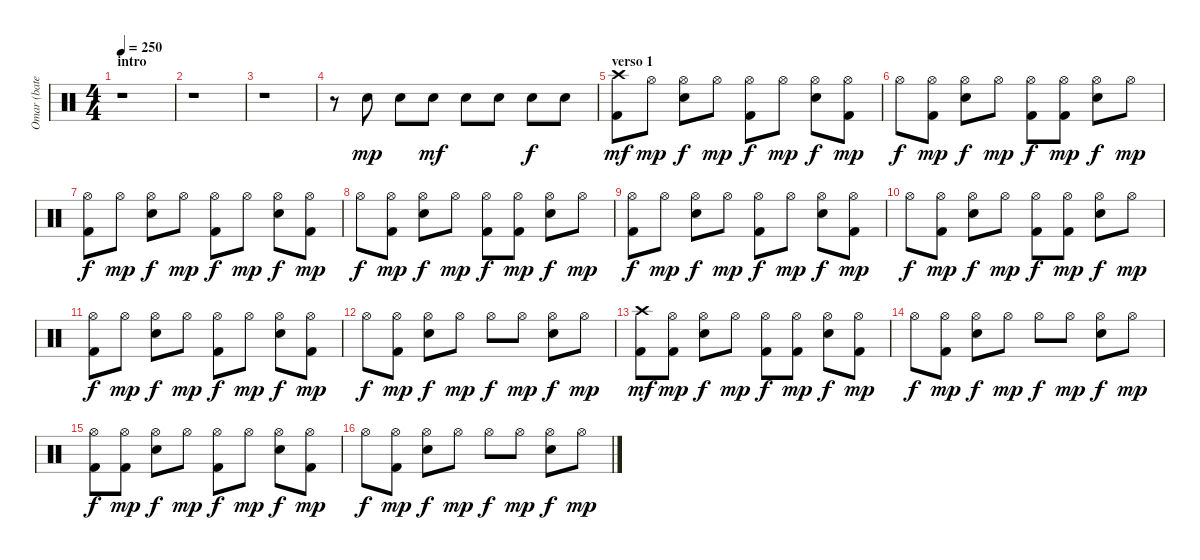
\track ("Omar (batería)" "Omar (bate") {instrument percussion}
\staff {score}
\articulation defaults
\ts (4 4)
\section ("" "intro")
\tempo 250
\clef neutral
\ks c
r.1{dy mp} |
r.1 |
r.1 |
r.8 "Snare (hit) 2".8 "Snare (hit) 2".8 "Snare (hit) 2".8{dy mf} "Snare (hit) 2".8 "Snare (hit) 2".8 "Snare (hit) 2".8{dy f} "Snare (hit) 2".8 |
\section ("" "verso 1")
("Crash high (hit)" "Kick (hit) 2").8{dy mf} "Hi-Hat (open)".8{dy mp} ("Hi-Hat (open)" "Snare (hit) 2").8{dy f} "Hi-Hat (open)".8{dy mp} ("Hi-Hat (open)" "Kick (hit) 2").8{dy f} "Hi-Hat (open)".8{dy mp} ("Hi-Hat (open)" "Snare (hit) 2").8{dy f} ("Hi-Hat (open)" "Kick (hit) 2").8{dy mp} |
"Hi-Hat (open)".8{dy f} ("Hi-Hat (open)" "Kick (hit) 2").8{dy mp} ("Hi-Hat (open)" "Snare (hit) 2").8{dy f} "Hi-Hat (open)".8{dy mp} ("Hi-Hat (open)" "Kick (hit) 2").8{dy f} ("Hi-Hat (open)" "Kick (hit) 2").8{dy mp} ("Hi-Hat (open)" "Snare (hit) 2").8{dy f} "Hi-Hat (open)".8{dy mp} |
("Hi-Hat (open)" "Kick (hit) 2").8{dy f} "Hi-Hat (open)".8{dy mp} ("Hi-Hat (open)" "Snare (hit) 2").8{dy f} "Hi-Hat (open)".8{dy mp} ("Hi-Hat (open)" "Kick (hit) 2").8{dy f} "Hi-Hat (open)".8{dy mp} ("Hi-Hat (open)" "Snare (hit) 2").8{dy f} ("Hi-Hat (open)" "Kick (hit) 2").8{dy mp} |
"Hi-Hat (open)".8{dy f} ("Hi-Hat (open)" "Kick (hit) 2").8{dy mp} ("Hi-Hat (open)" "Snare (hit) 2").8{dy f} "Hi-Hat (open)".8{dy mp} ("Hi-Hat (open)" "Kick (hit) 2").8{dy f} ("Hi-Hat (open)" "Kick (hit) 2").8{dy mp} ("Hi-Hat (open)" "Snare (hit) 2").8{dy f} "Hi-Hat (open)".8{dy mp} |
("Hi-Hat (open)" "Kick (hit) 2").8{dy f} "Hi-Hat (open)".8{dy mp} ("Hi-Hat (open)" "Snare (hit) 2").8{dy f} "Hi-Hat (open)".8{dy mp} ("Hi-Hat (open)" "Kick (hit) 2").8{dy f} "Hi-Hat (open)".8{dy mp} ("Hi-Hat (open)" "Snare (hit) 2").8{dy f} ("Hi-Hat (open)" "Kick (hit) 2").8{dy mp} |
"Hi-Hat (open)".8{dy f} ("Hi-Hat (open)" "Kick (hit) 2").8{dy mp} ("Hi-Hat (open)" "Snare (hit) 2").8{dy f} "Hi-Hat (open)".8{dy mp} ("Hi-Hat (open)" "Kick (hit) 2").8{dy f} ("Hi-Hat (open)" "Kick (hit) 2").8{dy mp} ("Hi-Hat (open)" "Snare (hit) 2").8{dy f} "Hi-Hat (open)".8{dy mp} |
("Hi-Hat (open)" "Kick (hit) 2").8{dy f} "Hi-Hat (open)".8{dy mp} ("Hi-Hat (open)" "Snare (hit) 2").8{dy f} "Hi-Hat (open)".8{dy mp} ("Hi-Hat (open)" "Kick (hit) 2").8{dy f} "Hi-Hat (open)".8{dy mp} ("Hi-Hat (open)" "Snare (hit) 2").8{dy f} ("Hi-Hat (open)" "Kick (hit) 2").8{dy mp} |
"Hi-Hat (open)".8{dy f} ("Hi-Hat (open)" "Kick (hit) 2").8{dy mp} ("Hi-Hat (open)" "Snare (hit) 2").8{dy f} "Hi-Hat (open)".8{dy mp} "Hi-Hat (open)".8{dy f} "Hi-Hat (open)".8{dy mp} ("Hi-Hat (open)" "Snare (hit) 2").8{dy f} "Hi-Hat (open)".8{dy mp} |
\section ("" "")
("Crash high (hit)" "Kick (hit) 2").8{dy mf} ("Hi-Hat (open)" "Kick (hit) 2").8{dy mp} ("Hi-Hat (open)" "Snare (hit) 2").8{dy f} "Hi-Hat (open)".8{dy mp} ("Hi-Hat (open)" "Kick (hit) 2").8{dy f} ("Hi-Hat (open)" "Kick (hit) 2").8{dy mp} ("Hi-Hat (open)" "Snare (hit) 2").8{dy f} ("Hi-Hat (open)" "Kick (hit) 2").8{dy mp} |
"Hi-Hat (open)".8{dy f} ("Hi-Hat (open)" "Kick (hit) 2").8{dy mp} ("Hi-Hat (open)" "Snare (hit) 2").8{dy f} "Hi-Hat (open)".8{dy mp} "Hi-Hat (open)".8{dy f} "Hi-Hat (open)".8{dy mp} ("Hi-Hat (open)" "Snare (hit) 2").8{dy f} "Hi-Hat (open)".8{dy mp} |
("Hi-Hat (open)" "Kick (hit) 2").8{dy f} ("Hi-Hat (open)" "Kick (hit) 2").8{dy mp} ("Hi-Hat (open)" "Snare (hit) 2").8{dy f} "Hi-Hat (open)".8{dy mp} ("Hi-Hat (open)" "Kick (hit) 2").8{dy f} "Hi-Hat (open)".8{dy mp} ("Hi-Hat (open)" "Snare (hit) 2").8{dy f} ("Hi-Hat (open)" "Kick (hit) 2").8{dy mp} |
"Hi-Hat (open)".8{dy f} ("Hi-Hat (open)" "Kick (hit) 2").8{dy mp} ("Hi-Hat (open)" "Snare (hit) 2").8{dy f} "Hi-Hat (open)".8{dy mp} "Hi-Hat (open)".8{dy f} "Hi-Hat (open)".8{dy mp} ("Hi-Hat (open)" "Snare (hit) 2").8{dy f} "Hi-Hat (open)".8{dy mp}
